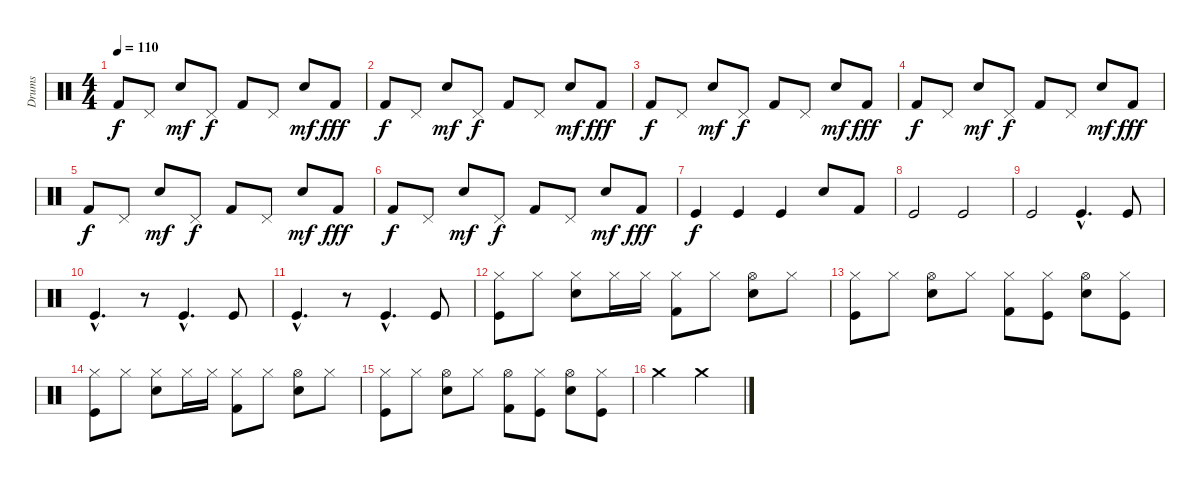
\track ("Drums" "Drums") {instrument percussion}
\staff {score}
\articulation defaults
\ts (4 4)
\tempo 110
\clef neutral
\ks c "Kick (hit) 2".8{dy f} "Pedal Hi-Hat (hit)".8 "Electric Snare (hit)".8{dy mf} "Pedal Hi-Hat (hit)".8{dy f} "Kick (hit) 2".8 "Pedal Hi-Hat (hit)".8 "Electric Snare (hit)".8{dy mf} "Kick (hit) 2".8{dy fff}
|
"Kick (hit) 2".8{dy f} "Pedal Hi-Hat (hit)".8 "Electric Snare (hit)".8{dy mf} "Pedal Hi-Hat (hit)".8{dy f} "Kick (hit) 2".8 "Pedal Hi-Hat (hit)".8 "Electric Snare (hit)".8{dy mf} "Kick (hit) 2".8{dy fff} |
"Kick (hit) 2".8{dy f} "Pedal Hi-Hat (hit)".8 "Electric Snare (hit)".8{dy mf} "Pedal Hi-Hat (hit)".8{dy f} "Kick (hit) 2".8 "Pedal Hi-Hat (hit)".8 "Electric Snare (hit)".8{dy mf} "Kick (hit) 2".8{dy fff} |
"Kick (hit) 2".8{dy f} "Pedal Hi-Hat (hit)".8 "Electric Snare (hit)".8{dy mf} "Pedal Hi-Hat (hit)".8{dy f} "Kick (hit) 2".8 "Pedal Hi-Hat (hit)".8 "Electric Snare (hit)".8{dy mf} "Kick (hit) 2".8{dy fff} |
"Kick (hit) 2".8{dy f} "Pedal Hi-Hat (hit)".8 "Electric Snare (hit)".8{dy mf} "Pedal Hi-Hat (hit)".8{dy f} "Kick (hit) 2".8 "Pedal Hi-Hat (hit)".8 "Electric Snare (hit)".8{dy mf} "Kick (hit) 2".8{dy fff} |
"Kick (hit) 2".8{dy f} "Pedal Hi-Hat (hit)".8 "Electric Snare (hit)".8{dy mf} "Pedal Hi-Hat (hit)".8{dy f} "Kick (hit) 2".8 "Pedal Hi-Hat (hit)".8 "Electric Snare (hit)".8{dy mf} "Kick (hit) 2".8{dy fff} |
"Kick (hit)".4{dy f} "Kick (hit)".4 "Kick (hit)".4 "Snare (hit) 2".8 "Kick (hit) 2".8 |
"Kick (hit)".2 "Kick (hit)".2 |
"Kick (hit)".2 "Kick (hit)"{hac}.4{d} "Kick (hit)".8 |
"Kick (hit)"{hac}.4{d} r.8 "Kick (hit)"{hac}.4{d} "Kick (hit)".8 |
"Kick (hit)"{hac}.4{d} r.8 "Kick (hit)"{hac}.4{d} "Kick (hit)".8 |
("Hi-Hat (closed)" "Kick (hit)").8 "Hi-Hat (closed)".8 ("Hi-Hat (closed)" "Snare (hit) 2").8 "Hi-Hat (closed)".16 "Hi-Hat (closed)".16 ("Hi-Hat (closed)" "Kick (hit) 2").8 "Hi-Hat (closed)".8 ("Hi-Hat (open)" "Snare (hit) 2").8 "Hi-Hat (closed)".8 |
("Hi-Hat (closed)" "Kick (hit)").8 "Hi-Hat (closed)".8 ("Hi-Hat (open)" "Snare (hit) 2").8 "Hi-Hat (closed)".8 ("Hi-Hat (closed)" "Kick (hit) 2").8 ("Hi-Hat (closed)" "Kick (hit)").8 ("Hi-Hat (open)" "Snare (hit) 2").8 ("Hi-Hat (closed)" "Kick (hit)").8 |
("Hi-Hat (closed)" "Kick (hit)").8 "Hi-Hat (closed)".8 ("Hi-Hat (closed)" "Snare (hit) 2").8 "Hi-Hat (closed)".16 "Hi-Hat (closed)".16 ("Hi-Hat (closed)" "Kick (hit) 2").8 "Hi-Hat (closed)".8 ("Hi-Hat (open)" "Snare (hit) 2").8 "Hi-Hat (closed)".8 |
("Hi-Hat (closed)" "Kick (hit)").8 "Hi-Hat (closed)".8 ("Hi-Hat (open)" "Snare (hit) 2").8 "Hi-Hat (closed)".8 ("Hi-Hat (open)" "Kick (hit) 2").8 ("Hi-Hat (closed)" "Kick (hit)").8 ("Hi-Hat (open)" "Snare (hit) 2").8 ("Hi-Hat (closed)" "Kick (hit)").8 |
"Crash medium (hit)".2 "Crash medium (hit)".2
